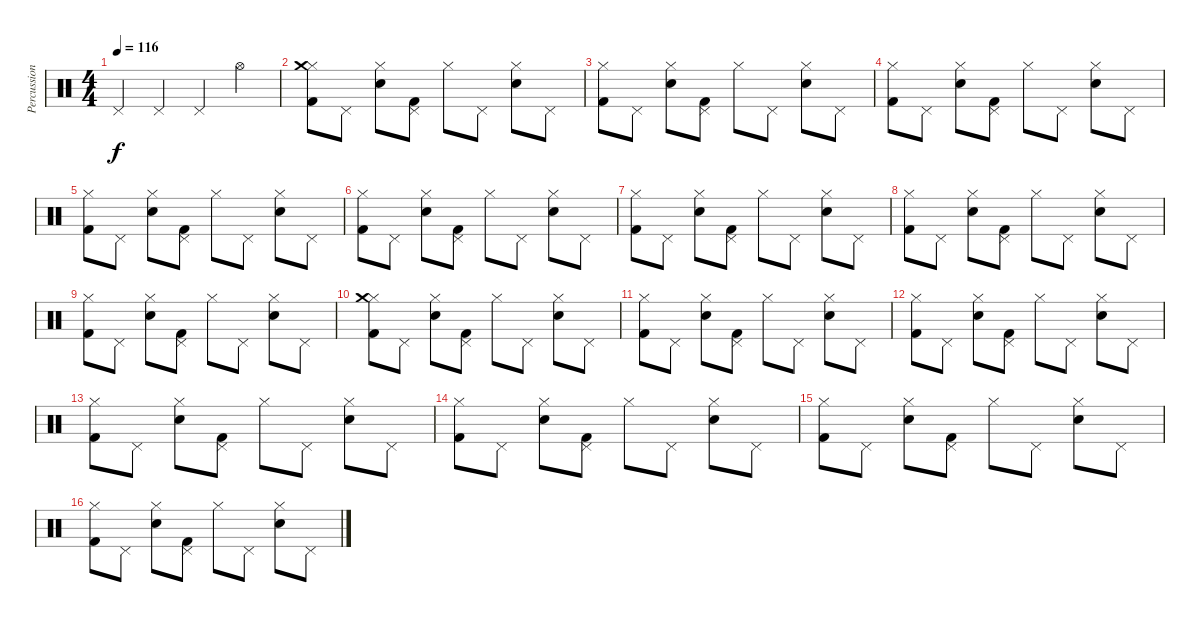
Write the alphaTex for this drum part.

\track ("Percussions" "Percussion") {instrument percussion}
\staff {score}
\articulation defaults
\ts (4 4)
\tempo 116
\clef neutral
\ks c "Pedal Hi-Hat (hit)".4{dy f} "Pedal Hi-Hat (hit)".4 "Pedal Hi-Hat (hit)".4 "Hi-Hat (open)".4
|
("Hi-Hat (closed)" "Crash medium (hit)" "Kick (hit) 2").8 "Pedal Hi-Hat (hit)".8 ("Hi-Hat (closed)" "Snare (hit) 2").8 ("Pedal Hi-Hat (hit)" "Kick (hit) 2").8 "Hi-Hat (closed)".8 "Pedal Hi-Hat (hit)".8 ("Hi-Hat (closed)" "Snare (hit) 2").8 "Pedal Hi-Hat (hit)".8 |
("Hi-Hat (closed)" "Kick (hit) 2").8 "Pedal Hi-Hat (hit)".8 ("Hi-Hat (closed)" "Snare (hit) 2").8 ("Pedal Hi-Hat (hit)" "Kick (hit) 2").8 "Hi-Hat (closed)".8 "Pedal Hi-Hat (hit)".8 ("Hi-Hat (closed)" "Snare (hit) 2").8 "Pedal Hi-Hat (hit)".8 |
("Hi-Hat (closed)" "Kick (hit) 2").8 "Pedal Hi-Hat (hit)".8 ("Hi-Hat (closed)" "Snare (hit) 2").8 ("Pedal Hi-Hat (hit)" "Kick (hit) 2").8 "Hi-Hat (closed)".8 "Pedal Hi-Hat (hit)".8 ("Hi-Hat (closed)" "Snare (hit) 2").8 "Pedal Hi-Hat (hit)".8 |
("Hi-Hat (closed)" "Kick (hit) 2").8 "Pedal Hi-Hat (hit)".8 ("Hi-Hat (closed)" "Snare (hit) 2").8 ("Pedal Hi-Hat (hit)" "Kick (hit) 2").8 "Hi-Hat (closed)".8 "Pedal Hi-Hat (hit)".8 ("Hi-Hat (closed)" "Snare (hit) 2").8 "Pedal Hi-Hat (hit)".8 |
("Hi-Hat (closed)" "Kick (hit) 2").8 "Pedal Hi-Hat (hit)".8 ("Hi-Hat (closed)" "Snare (hit) 2").8 ("Pedal Hi-Hat (hit)" "Kick (hit) 2").8 "Hi-Hat (closed)".8 "Pedal Hi-Hat (hit)".8 ("Hi-Hat (closed)" "Snare (hit) 2").8 "Pedal Hi-Hat (hit)".8 |
("Hi-Hat (closed)" "Kick (hit) 2").8 "Pedal Hi-Hat (hit)".8 ("Hi-Hat (closed)" "Snare (hit) 2").8 ("Pedal Hi-Hat (hit)" "Kick (hit) 2").8 "Hi-Hat (closed)".8 "Pedal Hi-Hat (hit)".8 ("Hi-Hat (closed)" "Snare (hit) 2").8 "Pedal Hi-Hat (hit)".8 |
("Hi-Hat (closed)" "Kick (hit) 2").8 "Pedal Hi-Hat (hit)".8 ("Hi-Hat (closed)" "Snare (hit) 2").8 ("Pedal Hi-Hat (hit)" "Kick (hit) 2").8 "Hi-Hat (closed)".8 "Pedal Hi-Hat (hit)".8 ("Hi-Hat (closed)" "Snare (hit) 2").8 "Pedal Hi-Hat (hit)".8 |
("Hi-Hat (closed)" "Kick (hit) 2").8 "Pedal Hi-Hat (hit)".8 ("Hi-Hat (closed)" "Snare (hit) 2").8 ("Pedal Hi-Hat (hit)" "Kick (hit) 2").8 "Hi-Hat (closed)".8 "Pedal Hi-Hat (hit)".8 ("Hi-Hat (closed)" "Snare (hit) 2").8 "Pedal Hi-Hat (hit)".8 |
("Hi-Hat (closed)" "Crash medium (hit)" "Kick (hit) 2").8 "Pedal Hi-Hat (hit)".8 ("Hi-Hat (closed)" "Snare (hit) 2").8 ("Pedal Hi-Hat (hit)" "Kick (hit) 2").8 "Hi-Hat (closed)".8 "Pedal Hi-Hat (hit)".8 ("Hi-Hat (closed)" "Snare (hit) 2").8 "Pedal Hi-Hat (hit)".8 |
("Hi-Hat (closed)" "Kick (hit) 2").8 "Pedal Hi-Hat (hit)".8 ("Hi-Hat (closed)" "Snare (hit) 2").8 ("Pedal Hi-Hat (hit)" "Kick (hit) 2").8 "Hi-Hat (closed)".8 "Pedal Hi-Hat (hit)".8 ("Hi-Hat (closed)" "Snare (hit) 2").8 "Pedal Hi-Hat (hit)".8 |
("Hi-Hat (closed)" "Kick (hit) 2").8 "Pedal Hi-Hat (hit)".8 ("Hi-Hat (closed)" "Snare (hit) 2").8 ("Pedal Hi-Hat (hit)" "Kick (hit) 2").8 "Hi-Hat (closed)".8 "Pedal Hi-Hat (hit)".8 ("Hi-Hat (closed)" "Snare (hit) 2").8 "Pedal Hi-Hat (hit)".8 |
("Hi-Hat (closed)" "Kick (hit) 2").8 "Pedal Hi-Hat (hit)".8 ("Hi-Hat (closed)" "Snare (hit) 2").8 ("Pedal Hi-Hat (hit)" "Kick (hit) 2").8 "Hi-Hat (closed)".8 "Pedal Hi-Hat (hit)".8 ("Hi-Hat (closed)" "Snare (hit) 2").8 "Pedal Hi-Hat (hit)".8 |
("Hi-Hat (closed)" "Kick (hit) 2").8 "Pedal Hi-Hat (hit)".8 ("Hi-Hat (closed)" "Snare (hit) 2").8 ("Pedal Hi-Hat (hit)" "Kick (hit) 2").8 "Hi-Hat (closed)".8 "Pedal Hi-Hat (hit)".8 ("Hi-Hat (closed)" "Snare (hit) 2").8 "Pedal Hi-Hat (hit)".8 |
("Hi-Hat (closed)" "Kick (hit) 2").8 "Pedal Hi-Hat (hit)".8 ("Hi-Hat (closed)" "Snare (hit) 2").8 ("Pedal Hi-Hat (hit)" "Kick (hit) 2").8 "Hi-Hat (closed)".8 "Pedal Hi-Hat (hit)".8 ("Hi-Hat (closed)" "Snare (hit) 2").8 "Pedal Hi-Hat (hit)".8 |
("Hi-Hat (closed)" "Kick (hit) 2").8 "Pedal Hi-Hat (hit)".8 ("Hi-Hat (closed)" "Snare (hit) 2").8 ("Pedal Hi-Hat (hit)" "Kick (hit) 2").8 "Hi-Hat (closed)".8 "Pedal Hi-Hat (hit)".8 ("Hi-Hat (closed)" "Snare (hit) 2").8 "Pedal Hi-Hat (hit)".8
